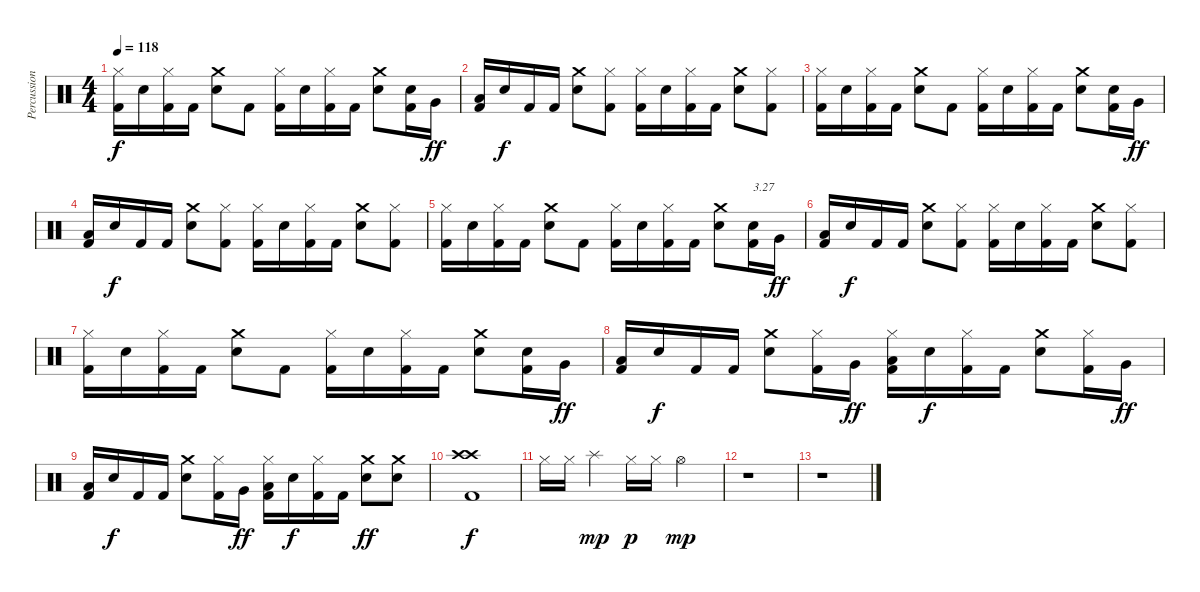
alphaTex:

\track ("Percussions" "Percussion") {instrument percussion}
\staff {score}
\articulation defaults
\ts (4 4)
\tempo 118
\clef neutral
\ks c
("Kick (hit) 2" "Hi-Hat (closed)").16{dy f} "Electric Snare (hit)".16 ("Kick (hit) 2" "Hi-Hat (closed)").16 "Kick (hit) 2".16 ("Electric Snare (hit)" "Crash medium (hit)").8 "Kick (hit) 2".8 ("Kick (hit) 2" "Hi-Hat (closed)").16 "Electric Snare (hit)".16 ("Kick (hit) 2" "Hi-Hat (closed)").16 "Kick (hit) 2".16 ("Electric Snare (hit)" "Crash medium (hit)").8 ("Kick (hit) 2" "Electric Snare (hit)").16 "Very Low Tom (hit)".16{dy ff} |
("Kick (hit) 2" "Low Floor Tom (hit)").16 "Electric Snare (hit)".16{dy f} "Kick (hit) 2".16 "Kick (hit) 2".16 ("Electric Snare (hit)" "Crash medium (hit)").8 ("Kick (hit) 2" "Hi-Hat (closed)").8 ("Kick (hit) 2" "Hi-Hat (closed)").16 "Electric Snare (hit)".16 ("Kick (hit) 2" "Hi-Hat (closed)").16 "Kick (hit) 2".16 ("Electric Snare (hit)" "Crash medium (hit)").8 ("Kick (hit) 2" "Hi-Hat (closed)").8 |
("Kick (hit) 2" "Hi-Hat (closed)").16 "Electric Snare (hit)".16 ("Kick (hit) 2" "Hi-Hat (closed)").16 "Kick (hit) 2".16 ("Electric Snare (hit)" "Crash medium (hit)").8 "Kick (hit) 2".8 ("Kick (hit) 2" "Hi-Hat (closed)").16 "Electric Snare (hit)".16 ("Kick (hit) 2" "Hi-Hat (closed)").16 "Kick (hit) 2".16 ("Electric Snare (hit)" "Crash medium (hit)").8 ("Kick (hit) 2" "Electric Snare (hit)").16 "Very Low Tom (hit)".16{dy ff} |
("Kick (hit) 2" "Low Floor Tom (hit)").16 "Electric Snare (hit)".16{dy f} "Kick (hit) 2".16 "Kick (hit) 2".16 ("Electric Snare (hit)" "Crash medium (hit)").8 ("Kick (hit) 2" "Hi-Hat (closed)").8 ("Kick (hit) 2" "Hi-Hat (closed)").16 "Electric Snare (hit)".16 ("Kick (hit) 2" "Hi-Hat (closed)").16 "Kick (hit) 2".16 ("Electric Snare (hit)" "Crash medium (hit)").8 ("Kick (hit) 2" "Hi-Hat (closed)").8 |
("Kick (hit) 2" "Hi-Hat (closed)").16 "Electric Snare (hit)".16 ("Kick (hit) 2" "Hi-Hat (closed)").16 "Kick (hit) 2".16 ("Electric Snare (hit)" "Crash medium (hit)").8 "Kick (hit) 2".8 ("Kick (hit) 2" "Hi-Hat (closed)").16 "Electric Snare (hit)".16 ("Kick (hit) 2" "Hi-Hat (closed)").16 "Kick (hit) 2".16 ("Electric Snare (hit)" "Crash medium (hit)").8 ("Kick (hit) 2" "Electric Snare (hit)").16{txt "3.27"} "Very Low Tom (hit)".16{dy ff} |
("Kick (hit) 2" "Low Floor Tom (hit)").16 "Electric Snare (hit)".16{dy f} "Kick (hit) 2".16 "Kick (hit) 2".16 ("Electric Snare (hit)" "Crash medium (hit)").8 ("Kick (hit) 2" "Hi-Hat (closed)").8 ("Kick (hit) 2" "Hi-Hat (closed)").16 "Electric Snare (hit)".16 ("Kick (hit) 2" "Hi-Hat (closed)").16 "Kick (hit) 2".16 ("Electric Snare (hit)" "Crash medium (hit)").8 ("Kick (hit) 2" "Hi-Hat (closed)").8 |
("Kick (hit) 2" "Hi-Hat (closed)").16 "Electric Snare (hit)".16 ("Kick (hit) 2" "Hi-Hat (closed)").16 "Kick (hit) 2".16 ("Electric Snare (hit)" "Crash medium (hit)").8 "Kick (hit) 2".8 ("Kick (hit) 2" "Hi-Hat (closed)").16 "Electric Snare (hit)".16 ("Kick (hit) 2" "Hi-Hat (closed)").16 "Kick (hit) 2".16 ("Electric Snare (hit)" "Crash medium (hit)").8 ("Kick (hit) 2" "Electric Snare (hit)").16 "Very Low Tom (hit)".16{dy ff} |
("Kick (hit) 2" "Low Floor Tom (hit)").16 "Electric Snare (hit)".16{dy f} "Kick (hit) 2".16 "Kick (hit) 2".16 ("Electric Snare (hit)" "Crash medium (hit)").8 ("Kick (hit) 2" "Hi-Hat (closed)").16 "Very Low Tom (hit)".16{dy ff} ("Kick (hit) 2" "Low Floor Tom (hit)" "Hi-Hat (closed)").16 "Electric Snare (hit)".16{dy f} ("Kick (hit) 2" "Hi-Hat (closed)").16 "Kick (hit) 2".16 ("Electric Snare (hit)" "Crash medium (hit)").8 ("Kick (hit) 2" "Hi-Hat (closed)").16 "Very Low Tom (hit)".16{dy ff} |
("Kick (hit) 2" "Low Floor Tom (hit)").16 "Electric Snare (hit)".16{dy f} "Kick (hit) 2".16 "Kick (hit) 2".16 ("Electric Snare (hit)" "Crash medium (hit)").8 ("Kick (hit) 2" "Hi-Hat (closed)").16 "Very Low Tom (hit)".16{dy ff} ("Kick (hit) 2" "Low Floor Tom (hit)" "Hi-Hat (closed)").16 "Electric Snare (hit)".16{dy f} ("Kick (hit) 2" "Hi-Hat (closed)").16 "Kick (hit) 2".16 ("Electric Snare (hit)" "Crash medium (hit)").8{dy ff} ("Electric Snare (hit)" "Crash medium (hit)").8 |
("Kick (hit) 2" "Crash high (hit)" "Crash high (hit)").1{dy f} |
"Hi-Hat (closed)".16 "Hi-Hat (closed)".16 "Splash (hit)".4{dy mp} "Hi-Hat (closed)".16{dy p} "Hi-Hat (closed)".16 "Hi-Hat (open)".2{dy mp} |
r.1 |
r.1
